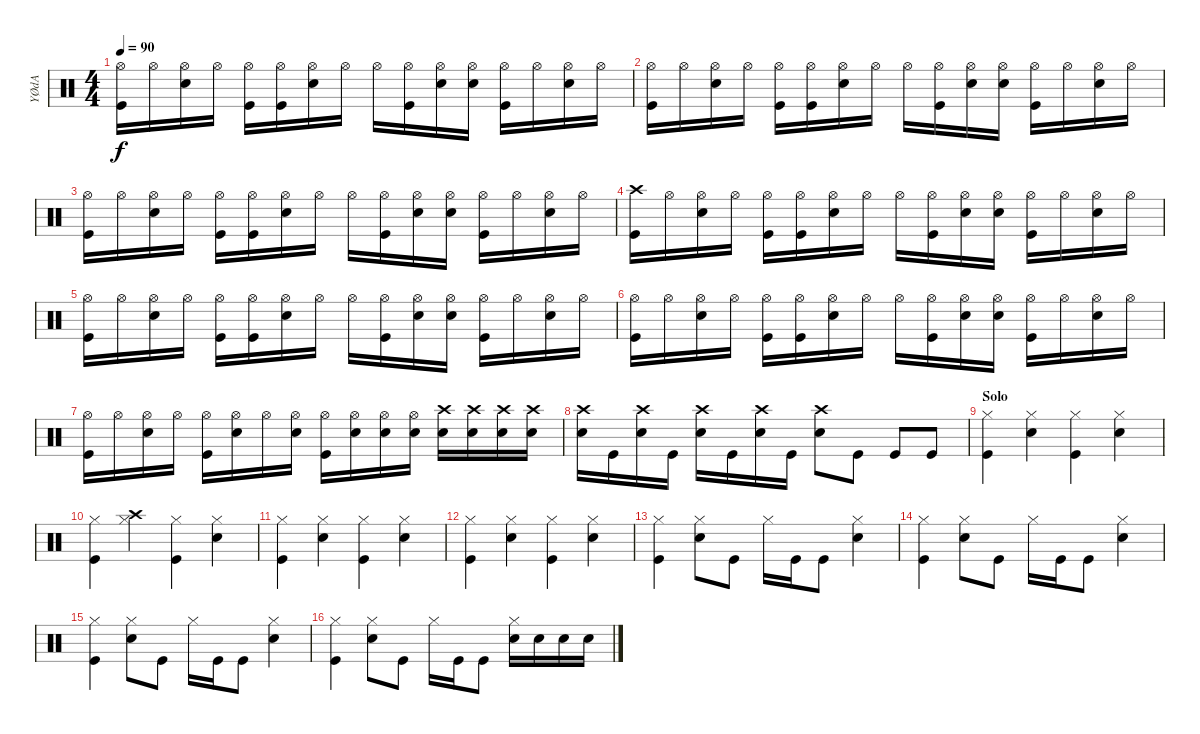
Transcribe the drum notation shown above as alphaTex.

\track ("YØdA" "YØdA") {instrument percussion}
\staff {score}
\articulation defaults
\ts (4 4)
\tempo 90
\clef neutral
\ks c
("Hi-Hat (open)" "Kick (hit)").16{dy f} "Hi-Hat (open)".16 ("Hi-Hat (open)" "Electric Snare (hit)").16 "Hi-Hat (open)".16 ("Hi-Hat (open)" "Kick (hit)").16 ("Hi-Hat (open)" "Kick (hit)").16 ("Hi-Hat (open)" "Electric Snare (hit)").16 "Hi-Hat (open)".16 "Hi-Hat (open)".16 ("Hi-Hat (open)" "Kick (hit)").16 ("Hi-Hat (open)" "Electric Snare (hit)").16 ("Hi-Hat (open)" "Electric Snare (hit)").16 ("Hi-Hat (open)" "Kick (hit)").16 "Hi-Hat (open)".16 ("Hi-Hat (open)" "Electric Snare (hit)").16 "Hi-Hat (open)".16 |
("Hi-Hat (open)" "Kick (hit)").16 "Hi-Hat (open)".16 ("Hi-Hat (open)" "Electric Snare (hit)").16 "Hi-Hat (open)".16 ("Hi-Hat (open)" "Kick (hit)").16 ("Hi-Hat (open)" "Kick (hit)").16 ("Hi-Hat (open)" "Electric Snare (hit)").16 "Hi-Hat (open)".16 "Hi-Hat (open)".16 ("Hi-Hat (open)" "Kick (hit)").16 ("Hi-Hat (open)" "Electric Snare (hit)").16 ("Hi-Hat (open)" "Electric Snare (hit)").16 ("Hi-Hat (open)" "Kick (hit)").16 "Hi-Hat (open)".16 ("Hi-Hat (open)" "Electric Snare (hit)").16 "Hi-Hat (open)".16 |
("Hi-Hat (open)" "Kick (hit)").16 "Hi-Hat (open)".16 ("Hi-Hat (open)" "Electric Snare (hit)").16 "Hi-Hat (open)".16 ("Hi-Hat (open)" "Kick (hit)").16 ("Hi-Hat (open)" "Kick (hit)").16 ("Hi-Hat (open)" "Electric Snare (hit)").16 "Hi-Hat (open)".16 "Hi-Hat (open)".16 ("Hi-Hat (open)" "Kick (hit)").16 ("Hi-Hat (open)" "Electric Snare (hit)").16 ("Hi-Hat (open)" "Electric Snare (hit)").16 ("Hi-Hat (open)" "Kick (hit)").16 "Hi-Hat (open)".16 ("Hi-Hat (open)" "Electric Snare (hit)").16 "Hi-Hat (open)".16 |
("Crash high (hit)" "Kick (hit)").16 "Hi-Hat (open)".16 ("Hi-Hat (open)" "Electric Snare (hit)").16 "Hi-Hat (open)".16 ("Hi-Hat (open)" "Kick (hit)").16 ("Hi-Hat (open)" "Kick (hit)").16 ("Hi-Hat (open)" "Electric Snare (hit)").16 "Hi-Hat (open)".16 "Hi-Hat (open)".16 ("Hi-Hat (open)" "Kick (hit)").16 ("Hi-Hat (open)" "Electric Snare (hit)").16 ("Hi-Hat (open)" "Electric Snare (hit)").16 ("Hi-Hat (open)" "Kick (hit)").16 "Hi-Hat (open)".16 ("Hi-Hat (open)" "Electric Snare (hit)").16 "Hi-Hat (open)".16 |
("Hi-Hat (open)" "Kick (hit)").16 "Hi-Hat (open)".16 ("Hi-Hat (open)" "Electric Snare (hit)").16 "Hi-Hat (open)".16 ("Hi-Hat (open)" "Kick (hit)").16 ("Hi-Hat (open)" "Kick (hit)").16 ("Hi-Hat (open)" "Electric Snare (hit)").16 "Hi-Hat (open)".16 "Hi-Hat (open)".16 ("Hi-Hat (open)" "Kick (hit)").16 ("Hi-Hat (open)" "Electric Snare (hit)").16 ("Hi-Hat (open)" "Electric Snare (hit)").16 ("Hi-Hat (open)" "Kick (hit)").16 "Hi-Hat (open)".16 ("Hi-Hat (open)" "Electric Snare (hit)").16 "Hi-Hat (open)".16 |
("Hi-Hat (open)" "Kick (hit)").16 "Hi-Hat (open)".16 ("Hi-Hat (open)" "Electric Snare (hit)").16 "Hi-Hat (open)".16 ("Hi-Hat (open)" "Kick (hit)").16 ("Hi-Hat (open)" "Kick (hit)").16 ("Hi-Hat (open)" "Electric Snare (hit)").16 "Hi-Hat (open)".16 "Hi-Hat (open)".16 ("Hi-Hat (open)" "Kick (hit)").16 ("Hi-Hat (open)" "Electric Snare (hit)").16 ("Hi-Hat (open)" "Electric Snare (hit)").16 ("Hi-Hat (open)" "Kick (hit)").16 "Hi-Hat (open)".16 ("Hi-Hat (open)" "Electric Snare (hit)").16 "Hi-Hat (open)".16 |
("Hi-Hat (open)" "Kick (hit)").16 "Hi-Hat (open)".16 ("Hi-Hat (open)" "Electric Snare (hit)").16 "Hi-Hat (open)".16 ("Hi-Hat (open)" "Kick (hit)").16 ("Hi-Hat (open)" "Electric Snare (hit)").16 "Hi-Hat (open)".16 ("Hi-Hat (open)" "Electric Snare (hit)").16 ("Hi-Hat (open)" "Kick (hit)").16 ("Hi-Hat (open)" "Electric Snare (hit)").16 ("Hi-Hat (open)" "Electric Snare (hit)").16 ("Hi-Hat (open)" "Electric Snare (hit)").16 ("Crash high (hit)" "Electric Snare (hit)").16 ("Crash high (hit)" "Electric Snare (hit)").16 ("Crash high (hit)" "Electric Snare (hit)").16 ("Crash high (hit)" "Electric Snare (hit)").16 |
("Crash high (hit)" "Electric Snare (hit)").16 "Kick (hit)".16 ("Crash high (hit)" "Electric Snare (hit)").16 "Kick (hit)".16 ("Crash high (hit)" "Electric Snare (hit)").16 "Kick (hit)".16 ("Crash high (hit)" "Electric Snare (hit)").16 "Kick (hit)".16 ("Crash high (hit)" "Electric Snare (hit)").8 "Kick (hit)".8 "Kick (hit)".8 "Kick (hit)".8 |
\section ("" "Solo")
("Hi-Hat (closed)" "Kick (hit)").4 ("Hi-Hat (closed)" "Electric Snare (hit)").4 ("Hi-Hat (closed)" "Kick (hit)").4 ("Hi-Hat (closed)" "Electric Snare (hit)").4 |
("Hi-Hat (closed)" "Kick (hit)").4 ("Hi-Hat (closed)" "Crash high (hit)").4 ("Hi-Hat (closed)" "Kick (hit)").4 ("Hi-Hat (closed)" "Electric Snare (hit)").4 |
("Hi-Hat (closed)" "Kick (hit)").4 ("Hi-Hat (closed)" "Electric Snare (hit)").4 ("Hi-Hat (closed)" "Kick (hit)").4 ("Hi-Hat (closed)" "Electric Snare (hit)").4 |
("Hi-Hat (closed)" "Kick (hit)").4 ("Hi-Hat (closed)" "Electric Snare (hit)").4 ("Hi-Hat (closed)" "Kick (hit)").4 ("Hi-Hat (closed)" "Electric Snare (hit)").4 |
("Hi-Hat (closed)" "Kick (hit)").4 ("Hi-Hat (closed)" "Electric Snare (hit)").8 "Kick (hit)".8 "Hi-Hat (closed)".16 "Kick (hit)".16 "Kick (hit)".8 ("Hi-Hat (closed)" "Electric Snare (hit)").4 |
("Hi-Hat (closed)" "Kick (hit)").4 ("Hi-Hat (closed)" "Electric Snare (hit)").8 "Kick (hit)".8 "Hi-Hat (closed)".16 "Kick (hit)".16 "Kick (hit)".8 ("Hi-Hat (closed)" "Electric Snare (hit)").4 |
("Hi-Hat (closed)" "Kick (hit)").4 ("Hi-Hat (closed)" "Electric Snare (hit)").8 "Kick (hit)".8 "Hi-Hat (closed)".16 "Kick (hit)".16 "Kick (hit)".8 ("Hi-Hat (closed)" "Electric Snare (hit)").4 |
("Hi-Hat (closed)" "Kick (hit)").4 ("Hi-Hat (closed)" "Electric Snare (hit)").8 "Kick (hit)".8 "Hi-Hat (closed)".16 "Kick (hit)".16 "Kick (hit)".8 ("Hi-Hat (closed)" "Electric Snare (hit)").16 "Electric Snare (hit)".16 "Electric Snare (hit)".16 "Electric Snare (hit)".16
